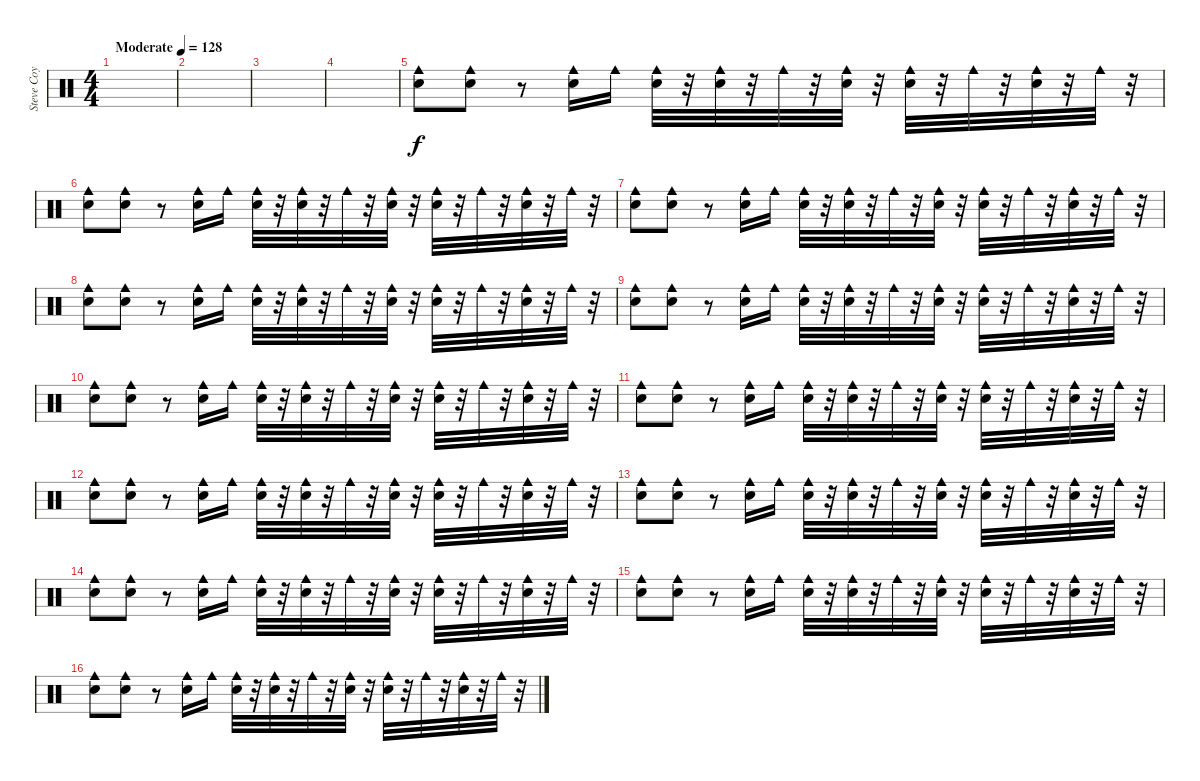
\track ("Steve Coy" "Steve Coy") {instrument percussion}
\staff {score}
\articulation defaults
\ts (4 4)
\tempo (128 "Moderate")
\clef neutral
\ks c
|
|
|
|
("Cowbell medium (hit)" "Hand Clap (hit)").8 ("Cowbell medium (hit)" "Hand Clap (hit)").8 r.8 ("Cowbell medium (hit)" "Hand Clap (hit)").16 "Cowbell medium (hit)".16 ("Cowbell medium (hit)" "Hand Clap (hit)").32 r.32 ("Cowbell medium (hit)" "Hand Clap (hit)").32 r.32 "Cowbell medium (hit)".32 r.32 ("Cowbell medium (hit)" "Hand Clap (hit)").32 r.32 ("Cowbell medium (hit)" "Hand Clap (hit)").32 r.32 "Cowbell medium (hit)".32 r.32 ("Cowbell medium (hit)" "Hand Clap (hit)").32 r.32 "Cowbell medium (hit)".32 r.32 |
("Cowbell medium (hit)" "Hand Clap (hit)").8 ("Cowbell medium (hit)" "Hand Clap (hit)").8 r.8 ("Cowbell medium (hit)" "Hand Clap (hit)").16 "Cowbell medium (hit)".16 ("Cowbell medium (hit)" "Hand Clap (hit)").32 r.32 ("Cowbell medium (hit)" "Hand Clap (hit)").32 r.32 "Cowbell medium (hit)".32 r.32 ("Cowbell medium (hit)" "Hand Clap (hit)").32 r.32 ("Cowbell medium (hit)" "Hand Clap (hit)").32 r.32 "Cowbell medium (hit)".32 r.32 ("Cowbell medium (hit)" "Hand Clap (hit)").32 r.32 "Cowbell medium (hit)".32 r.32 |
("Cowbell medium (hit)" "Hand Clap (hit)").8 ("Cowbell medium (hit)" "Hand Clap (hit)").8 r.8 ("Cowbell medium (hit)" "Hand Clap (hit)").16 "Cowbell medium (hit)".16 ("Cowbell medium (hit)" "Hand Clap (hit)").32 r.32 ("Cowbell medium (hit)" "Hand Clap (hit)").32 r.32 "Cowbell medium (hit)".32 r.32 ("Cowbell medium (hit)" "Hand Clap (hit)").32 r.32 ("Cowbell medium (hit)" "Hand Clap (hit)").32 r.32 "Cowbell medium (hit)".32 r.32 ("Cowbell medium (hit)" "Hand Clap (hit)").32 r.32 "Cowbell medium (hit)".32 r.32 |
("Cowbell medium (hit)" "Hand Clap (hit)").8 ("Cowbell medium (hit)" "Hand Clap (hit)").8 r.8 ("Cowbell medium (hit)" "Hand Clap (hit)").16 "Cowbell medium (hit)".16 ("Cowbell medium (hit)" "Hand Clap (hit)").32 r.32 ("Cowbell medium (hit)" "Hand Clap (hit)").32 r.32 "Cowbell medium (hit)".32 r.32 ("Cowbell medium (hit)" "Hand Clap (hit)").32 r.32 ("Cowbell medium (hit)" "Hand Clap (hit)").32 r.32 "Cowbell medium (hit)".32 r.32 ("Cowbell medium (hit)" "Hand Clap (hit)").32 r.32 "Cowbell medium (hit)".32 r.32 |
("Cowbell medium (hit)" "Hand Clap (hit)").8 ("Cowbell medium (hit)" "Hand Clap (hit)").8 r.8 ("Cowbell medium (hit)" "Hand Clap (hit)").16 "Cowbell medium (hit)".16 ("Cowbell medium (hit)" "Hand Clap (hit)").32 r.32 ("Cowbell medium (hit)" "Hand Clap (hit)").32 r.32 "Cowbell medium (hit)".32 r.32 ("Cowbell medium (hit)" "Hand Clap (hit)").32 r.32 ("Cowbell medium (hit)" "Hand Clap (hit)").32 r.32 "Cowbell medium (hit)".32 r.32 ("Cowbell medium (hit)" "Hand Clap (hit)").32 r.32 "Cowbell medium (hit)".32 r.32 |
("Cowbell medium (hit)" "Hand Clap (hit)").8 ("Cowbell medium (hit)" "Hand Clap (hit)").8 r.8 ("Cowbell medium (hit)" "Hand Clap (hit)").16 "Cowbell medium (hit)".16 ("Cowbell medium (hit)" "Hand Clap (hit)").32 r.32 ("Cowbell medium (hit)" "Hand Clap (hit)").32 r.32 "Cowbell medium (hit)".32 r.32 ("Cowbell medium (hit)" "Hand Clap (hit)").32 r.32 ("Cowbell medium (hit)" "Hand Clap (hit)").32 r.32 "Cowbell medium (hit)".32 r.32 ("Cowbell medium (hit)" "Hand Clap (hit)").32 r.32 "Cowbell medium (hit)".32 r.32 |
("Cowbell medium (hit)" "Hand Clap (hit)").8 ("Cowbell medium (hit)" "Hand Clap (hit)").8 r.8 ("Cowbell medium (hit)" "Hand Clap (hit)").16 "Cowbell medium (hit)".16 ("Cowbell medium (hit)" "Hand Clap (hit)").32 r.32 ("Cowbell medium (hit)" "Hand Clap (hit)").32 r.32 "Cowbell medium (hit)".32 r.32 ("Cowbell medium (hit)" "Hand Clap (hit)").32 r.32 ("Cowbell medium (hit)" "Hand Clap (hit)").32 r.32 "Cowbell medium (hit)".32 r.32 ("Cowbell medium (hit)" "Hand Clap (hit)").32 r.32 "Cowbell medium (hit)".32 r.32 |
("Cowbell medium (hit)" "Hand Clap (hit)").8 ("Cowbell medium (hit)" "Hand Clap (hit)").8 r.8 ("Cowbell medium (hit)" "Hand Clap (hit)").16 "Cowbell medium (hit)".16 ("Cowbell medium (hit)" "Hand Clap (hit)").32 r.32 ("Cowbell medium (hit)" "Hand Clap (hit)").32 r.32 "Cowbell medium (hit)".32 r.32 ("Cowbell medium (hit)" "Hand Clap (hit)").32 r.32 ("Cowbell medium (hit)" "Hand Clap (hit)").32 r.32 "Cowbell medium (hit)".32 r.32 ("Cowbell medium (hit)" "Hand Clap (hit)").32 r.32 "Cowbell medium (hit)".32 r.32 |
("Cowbell medium (hit)" "Hand Clap (hit)").8 ("Cowbell medium (hit)" "Hand Clap (hit)").8 r.8 ("Cowbell medium (hit)" "Hand Clap (hit)").16 "Cowbell medium (hit)".16 ("Cowbell medium (hit)" "Hand Clap (hit)").32 r.32 ("Cowbell medium (hit)" "Hand Clap (hit)").32 r.32 "Cowbell medium (hit)".32 r.32 ("Cowbell medium (hit)" "Hand Clap (hit)").32 r.32 ("Cowbell medium (hit)" "Hand Clap (hit)").32 r.32 "Cowbell medium (hit)".32 r.32 ("Cowbell medium (hit)" "Hand Clap (hit)").32 r.32 "Cowbell medium (hit)".32 r.32 |
("Cowbell medium (hit)" "Hand Clap (hit)").8 ("Cowbell medium (hit)" "Hand Clap (hit)").8 r.8 ("Cowbell medium (hit)" "Hand Clap (hit)").16 "Cowbell medium (hit)".16 ("Cowbell medium (hit)" "Hand Clap (hit)").32 r.32 ("Cowbell medium (hit)" "Hand Clap (hit)").32 r.32 "Cowbell medium (hit)".32 r.32 ("Cowbell medium (hit)" "Hand Clap (hit)").32 r.32 ("Cowbell medium (hit)" "Hand Clap (hit)").32 r.32 "Cowbell medium (hit)".32 r.32 ("Cowbell medium (hit)" "Hand Clap (hit)").32 r.32 "Cowbell medium (hit)".32 r.32 |
("Cowbell medium (hit)" "Hand Clap (hit)").8 ("Cowbell medium (hit)" "Hand Clap (hit)").8 r.8 ("Cowbell medium (hit)" "Hand Clap (hit)").16 "Cowbell medium (hit)".16 ("Cowbell medium (hit)" "Hand Clap (hit)").32 r.32 ("Cowbell medium (hit)" "Hand Clap (hit)").32 r.32 "Cowbell medium (hit)".32 r.32 ("Cowbell medium (hit)" "Hand Clap (hit)").32 r.32 ("Cowbell medium (hit)" "Hand Clap (hit)").32 r.32 "Cowbell medium (hit)".32 r.32 ("Cowbell medium (hit)" "Hand Clap (hit)").32 r.32 "Cowbell medium (hit)".32 r.32 |
("Cowbell medium (hit)" "Hand Clap (hit)").8 ("Cowbell medium (hit)" "Hand Clap (hit)").8 r.8 ("Cowbell medium (hit)" "Hand Clap (hit)").16 "Cowbell medium (hit)".16 ("Cowbell medium (hit)" "Hand Clap (hit)").32 r.32 ("Cowbell medium (hit)" "Hand Clap (hit)").32 r.32 "Cowbell medium (hit)".32 r.32 ("Cowbell medium (hit)" "Hand Clap (hit)").32 r.32 ("Cowbell medium (hit)" "Hand Clap (hit)").32 r.32 "Cowbell medium (hit)".32 r.32 ("Cowbell medium (hit)" "Hand Clap (hit)").32 r.32 "Cowbell medium (hit)".32 r.32
